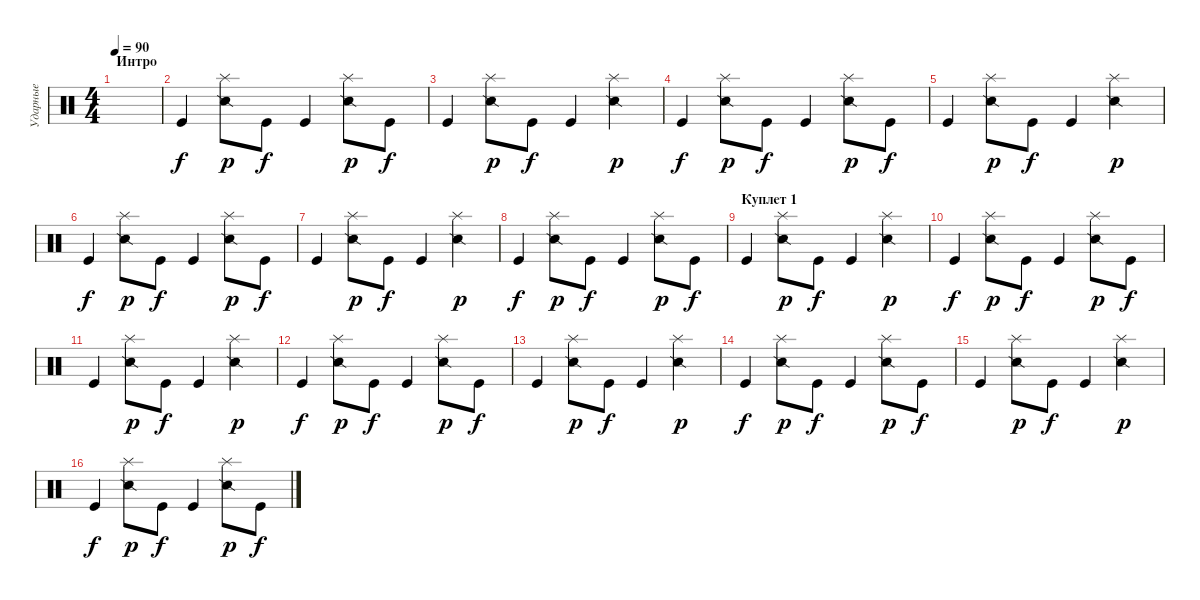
\track ("Ударные" "Ударные") {instrument percussion}
\staff {score}
\articulation defaults
\ts (4 4)
\section ("" "Интро")
\tempo 90
\clef neutral
\ks c
|
"Kick (hit)".4 ("Splash (hit)" "Snare (side stick) 2").8{dy p} "Kick (hit)".8{dy f} "Kick (hit)".4 ("Splash (hit)" "Snare (side stick) 2").8{dy p} "Kick (hit)".8{dy f} |
"Kick (hit)".4 ("Splash (hit)" "Snare (side stick) 2").8{dy p} "Kick (hit)".8{dy f} "Kick (hit)".4 ("Splash (hit)" "Snare (side stick) 2").4{dy p} |
"Kick (hit)".4{dy f} ("Splash (hit)" "Snare (side stick) 2").8{dy p} "Kick (hit)".8{dy f} "Kick (hit)".4 ("Splash (hit)" "Snare (side stick) 2").8{dy p} "Kick (hit)".8{dy f} |
"Kick (hit)".4 ("Splash (hit)" "Snare (side stick) 2").8{dy p} "Kick (hit)".8{dy f} "Kick (hit)".4 ("Splash (hit)" "Snare (side stick) 2").4{dy p} |
"Kick (hit)".4{dy f} ("Splash (hit)" "Snare (side stick) 2").8{dy p} "Kick (hit)".8{dy f} "Kick (hit)".4 ("Splash (hit)" "Snare (side stick) 2").8{dy p} "Kick (hit)".8{dy f} |
"Kick (hit)".4 ("Splash (hit)" "Snare (side stick) 2").8{dy p} "Kick (hit)".8{dy f} "Kick (hit)".4 ("Splash (hit)" "Snare (side stick) 2").4{dy p} |
"Kick (hit)".4{dy f} ("Splash (hit)" "Snare (side stick) 2").8{dy p} "Kick (hit)".8{dy f} "Kick (hit)".4 ("Splash (hit)" "Snare (side stick) 2").8{dy p} "Kick (hit)".8{dy f} |
\section ("" "Куплет 1")
"Kick (hit)".4 ("Splash (hit)" "Snare (side stick) 2").8{dy p} "Kick (hit)".8{dy f} "Kick (hit)".4 ("Splash (hit)" "Snare (side stick) 2").4{dy p} |
"Kick (hit)".4{dy f} ("Splash (hit)" "Snare (side stick) 2").8{dy p} "Kick (hit)".8{dy f} "Kick (hit)".4 ("Splash (hit)" "Snare (side stick) 2").8{dy p} "Kick (hit)".8{dy f} |
"Kick (hit)".4 ("Splash (hit)" "Snare (side stick) 2").8{dy p} "Kick (hit)".8{dy f} "Kick (hit)".4 ("Splash (hit)" "Snare (side stick) 2").4{dy p} |
"Kick (hit)".4{dy f} ("Splash (hit)" "Snare (side stick) 2").8{dy p} "Kick (hit)".8{dy f} "Kick (hit)".4 ("Splash (hit)" "Snare (side stick) 2").8{dy p} "Kick (hit)".8{dy f} |
"Kick (hit)".4 ("Splash (hit)" "Snare (side stick) 2").8{dy p} "Kick (hit)".8{dy f} "Kick (hit)".4 ("Splash (hit)" "Snare (side stick) 2").4{dy p} |
"Kick (hit)".4{dy f} ("Splash (hit)" "Snare (side stick) 2").8{dy p} "Kick (hit)".8{dy f} "Kick (hit)".4 ("Splash (hit)" "Snare (side stick) 2").8{dy p} "Kick (hit)".8{dy f} |
"Kick (hit)".4 ("Splash (hit)" "Snare (side stick) 2").8{dy p} "Kick (hit)".8{dy f} "Kick (hit)".4 ("Splash (hit)" "Snare (side stick) 2").4{dy p} |
"Kick (hit)".4{dy f} ("Splash (hit)" "Snare (side stick) 2").8{dy p} "Kick (hit)".8{dy f} "Kick (hit)".4 ("Splash (hit)" "Snare (side stick) 2").8{dy p} "Kick (hit)".8{dy f}
